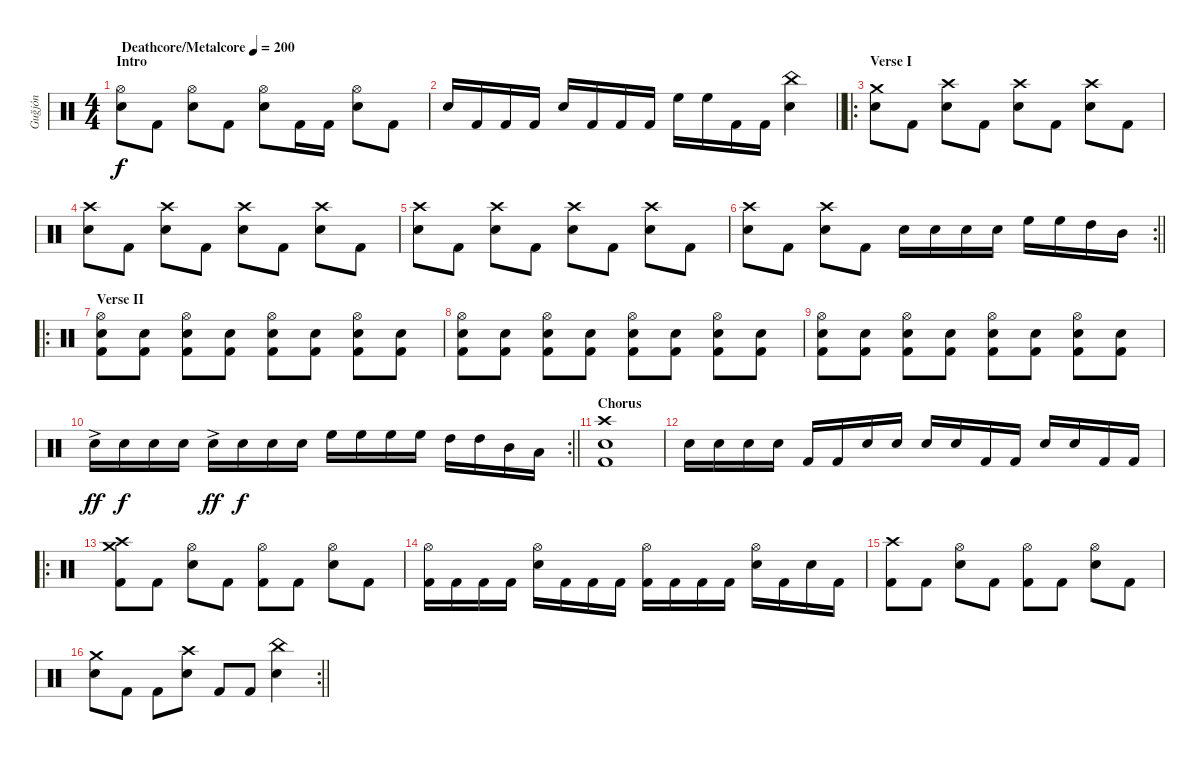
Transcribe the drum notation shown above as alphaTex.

\track ("Guğjón" "Guğjón") {instrument percussion}
\staff {score}
\articulation defaults
\ts (4 4)
\section ("" "Intro")
\tempo (200 "Deathcore/Metalcore")
\clef neutral
\ks c
("Hi-Hat (open)" "Electric Snare (hit)").8{dy f} "Kick (hit) 2".8 ("Hi-Hat (open)" "Electric Snare (hit)").8 "Kick (hit) 2".8 ("Hi-Hat (open)" "Electric Snare (hit)").8 "Kick (hit) 2".16 "Kick (hit) 2".16 ("Hi-Hat (open)" "Electric Snare (hit)").8 "Kick (hit) 2".8 |
\barLineRight lightlight "Electric Snare (hit)".16 "Kick (hit) 2".16 "Kick (hit) 2".16 "Kick (hit) 2".16 "Electric Snare (hit)".16 "Kick (hit) 2".16 "Kick (hit) 2".16 "Kick (hit) 2".16 "High Floor Tom (hit)".16 "High Floor Tom (hit)".16 "Kick (hit) 2".16 "Kick (hit) 2".16
("China (hit)" "Electric Snare (hit)").4 |
\ro
\section ("" "Verse I")
("Crash medium (hit)" "Electric Snare (hit)").8 "Kick (hit) 2".8 ("Crash high (hit)" "Electric Snare (hit)").8 "Kick (hit) 2".8 ("Crash high (hit)" "Electric Snare (hit)").8 "Kick (hit) 2".8 ("Crash high (hit)" "Electric Snare (hit)").8 "Kick (hit) 2".8 |
("Crash high (hit)" "Electric Snare (hit)").8 "Kick (hit) 2".8 ("Crash high (hit)" "Electric Snare (hit)").8 "Kick (hit) 2".8 ("Crash high (hit)" "Electric Snare (hit)").8 "Kick (hit) 2".8 ("Crash high (hit)" "Electric Snare (hit)").8 "Kick (hit) 2".8 |
("Crash high (hit)" "Electric Snare (hit)").8 "Kick (hit) 2".8 ("Crash high (hit)" "Electric Snare (hit)").8 "Kick (hit) 2".8 ("Crash high (hit)" "Electric Snare (hit)").8 "Kick (hit) 2".8 ("Crash high (hit)" "Electric Snare (hit)").8 "Kick (hit) 2".8 |
\rc 2
\barLineRight lightlight
("Crash high (hit)" "Electric Snare (hit)").8 "Kick (hit) 2".8 ("Crash high (hit)" "Electric Snare (hit)").8 "Kick (hit) 2".8 "Electric Snare (hit)".16 "Electric Snare (hit)".16 "Electric Snare (hit)".16 "Electric Snare (hit)".16 "High Floor Tom (hit)".16 "High Floor Tom (hit)".16 "High Tom (hit)".16 "Mid Tom (hit)".16 |
\ro
\section ("" "Verse II")
("Hi-Hat (open)" "Electric Snare (hit)" "Kick (hit) 2").8 ("Electric Snare (hit)" "Kick (hit) 2").8 ("Hi-Hat (open)" "Electric Snare (hit)" "Kick (hit) 2").8 ("Electric Snare (hit)" "Kick (hit) 2").8 ("Hi-Hat (open)" "Electric Snare (hit)" "Kick (hit) 2").8 ("Electric Snare (hit)" "Kick (hit) 2").8 ("Hi-Hat (open)" "Electric Snare (hit)" "Kick (hit) 2").8 ("Electric Snare (hit)" "Kick (hit) 2").8 |
("Hi-Hat (open)" "Electric Snare (hit)" "Kick (hit) 2").8 ("Electric Snare (hit)" "Kick (hit) 2").8 ("Hi-Hat (open)" "Electric Snare (hit)" "Kick (hit) 2").8 ("Electric Snare (hit)" "Kick (hit) 2").8 ("Hi-Hat (open)" "Electric Snare (hit)" "Kick (hit) 2").8 ("Electric Snare (hit)" "Kick (hit) 2").8 ("Hi-Hat (open)" "Electric Snare (hit)" "Kick (hit) 2").8 ("Electric Snare (hit)" "Kick (hit) 2").8 |
("Hi-Hat (open)" "Electric Snare (hit)" "Kick (hit) 2").8 ("Electric Snare (hit)" "Kick (hit) 2").8 ("Hi-Hat (open)" "Electric Snare (hit)" "Kick (hit) 2").8 ("Electric Snare (hit)" "Kick (hit) 2").8 ("Hi-Hat (open)" "Electric Snare (hit)" "Kick (hit) 2").8 ("Electric Snare (hit)" "Kick (hit) 2").8 ("Hi-Hat (open)" "Electric Snare (hit)" "Kick (hit) 2").8 ("Electric Snare (hit)" "Kick (hit) 2").8 |
\rc 2
\barLineRight lightlight "Electric Snare (hit)"{ac}.16{dy ff} "Electric Snare (hit)".16{dy f} "Electric Snare (hit)".16 "Electric Snare (hit)".16 "Electric Snare (hit)"{ac}.16{dy ff} "Electric Snare (hit)".16{dy f} "Electric Snare (hit)".16 "Electric Snare (hit)".16 "High Floor Tom (hit)".16 "High Floor Tom (hit)".16 "High Floor Tom (hit)".16 "High Floor Tom (hit)".16 "High Tom (hit)".16 "High Tom (hit)".16 "Mid Tom (hit)".16 "Low Tom (hit)".16
|
\section ("" "Chorus")
("Crash high (hit)" "Electric Snare (hit)" "Kick (hit) 2").1 |
"Electric Snare (hit)".16 "Electric Snare (hit)".16 "Electric Snare (hit)".16 "Electric Snare (hit)".16 "Kick (hit) 2".16 "Kick (hit) 2".16 "Electric Snare (hit)".16 "Electric Snare (hit)".16 "Electric Snare (hit)".16 "Electric Snare (hit)".16 "Kick (hit) 2".16 "Kick (hit) 2".16 "Electric Snare (hit)".16 "Electric Snare (hit)".16 "Kick (hit) 2".16 "Kick (hit) 2".16 |
\ro
("Crash medium (hit)" "Crash high (hit)" "Kick (hit) 2").8 "Kick (hit) 2".8 ("Hi-Hat (open)" "Electric Snare (hit)").8 "Kick (hit) 2".8 ("Hi-Hat (open)" "Kick (hit) 2").8 "Kick (hit) 2".8 ("Hi-Hat (open)" "Electric Snare (hit)").8 "Kick (hit) 2".8 |
("Hi-Hat (open)" "Kick (hit) 2").16 "Kick (hit) 2".16 "Kick (hit) 2".16 "Kick (hit) 2".16 ("Hi-Hat (open)" "Electric Snare (hit)").16 "Kick (hit) 2".16 "Kick (hit) 2".16 "Kick (hit) 2".16 ("Hi-Hat (open)" "Kick (hit) 2").16 "Kick (hit) 2".16 "Kick (hit) 2".16 "Kick (hit) 2".16 ("Hi-Hat (open)" "Electric Snare (hit)").16 "Kick (hit) 2".16 "Electric Snare (hit)".16 "Kick (hit) 2".16 |
("Crash high (hit)" "Kick (hit) 2").8 "Kick (hit) 2".8 ("Hi-Hat (open)" "Electric Snare (hit)").8 "Kick (hit) 2".8 ("Hi-Hat (open)" "Kick (hit) 2").8 "Kick (hit) 2".8 ("Hi-Hat (open)" "Electric Snare (hit)").8 "Kick (hit) 2".8 |
\rc 2
\barLineRight lightlight
("Crash medium (hit)" "Electric Snare (hit)").8 "Kick (hit) 2".8 "Kick (hit) 2".8 ("Crash high (hit)" "Electric Snare (hit)").8 "Kick (hit) 2".8 "Kick (hit) 2".8 ("China (hit)" "Electric Snare (hit)").4
